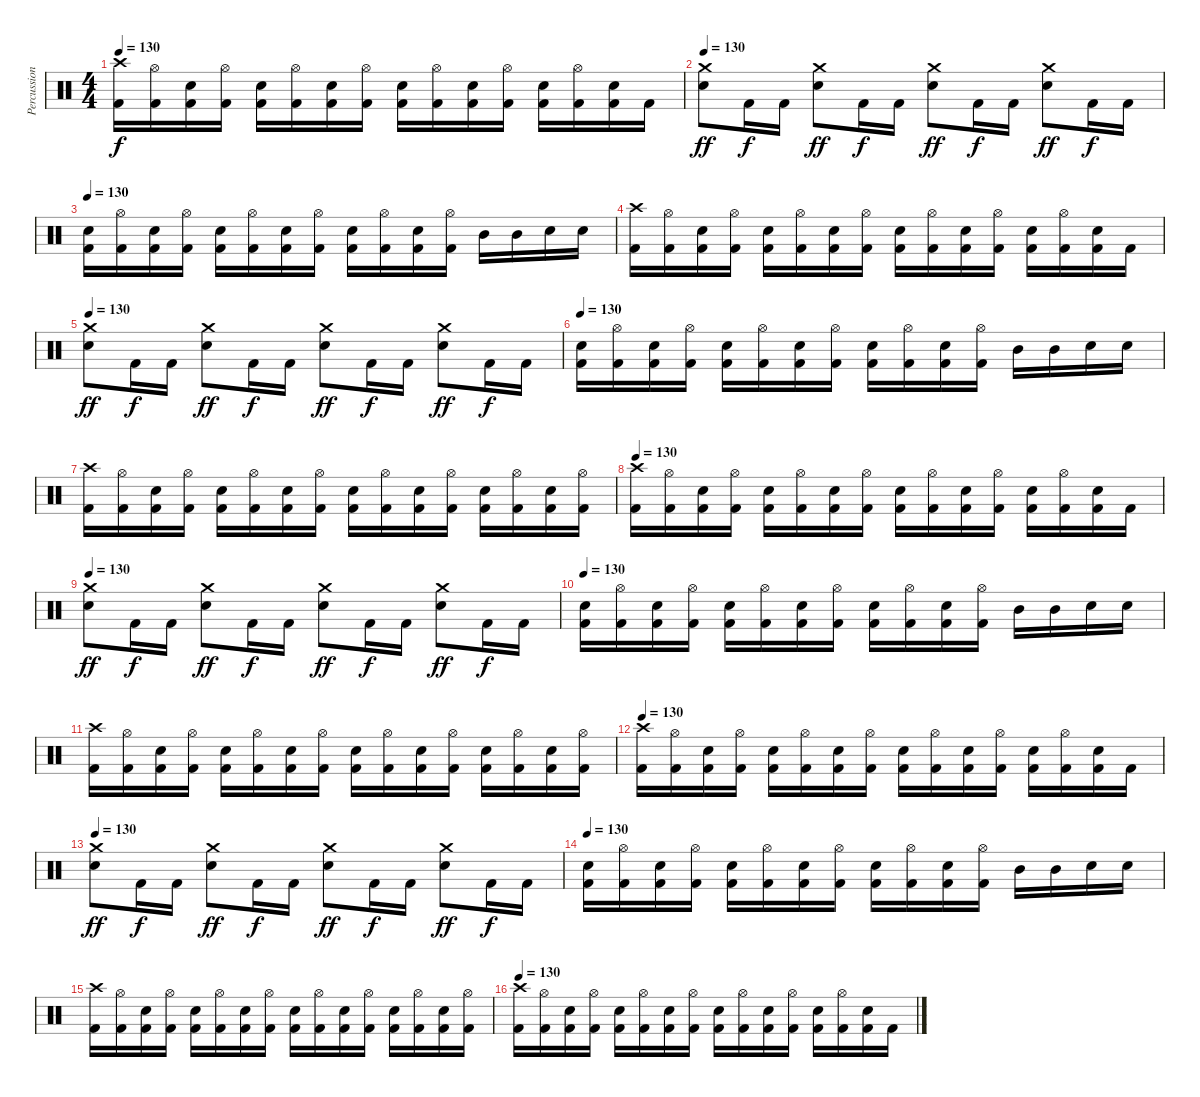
\track ("Percussion" "Percussion") {instrument percussion}
\staff {score}
\articulation defaults
\ts (4 4)
\tempo 130
\clef neutral
\ks c
("Crash high (hit)" "Kick (hit) 2").16{dy f} ("Hi-Hat (open)" "Kick (hit) 2").16 ("Electric Snare (hit)" "Kick (hit) 2").16 ("Hi-Hat (open)" "Kick (hit) 2").16 ("Electric Snare (hit)" "Kick (hit) 2").16 ("Hi-Hat (open)" "Kick (hit) 2").16 ("Electric Snare (hit)" "Kick (hit) 2").16 ("Hi-Hat (open)" "Kick (hit) 2").16 ("Electric Snare (hit)" "Kick (hit) 2").16 ("Hi-Hat (open)" "Kick (hit) 2").16 ("Electric Snare (hit)" "Kick (hit) 2").16 ("Hi-Hat (open)" "Kick (hit) 2").16 ("Electric Snare (hit)" "Kick (hit) 2").16 ("Hi-Hat (open)" "Kick (hit) 2").16 ("Electric Snare (hit)" "Kick (hit) 2").16 "Kick (hit) 2".16 |
\tempo 130
("Crash medium (hit)" "Electric Snare (hit)").8{dy ff} "Kick (hit) 2".16{dy f} "Kick (hit) 2".16 ("Crash medium (hit)" "Electric Snare (hit)").8{dy ff} "Kick (hit) 2".16{dy f} "Kick (hit) 2".16 ("Crash medium (hit)" "Electric Snare (hit)").8{dy ff} "Kick (hit) 2".16{dy f} "Kick (hit) 2".16 ("Crash medium (hit)" "Electric Snare (hit)").8{dy ff} "Kick (hit) 2".16{dy f} "Kick (hit) 2".16 |
\tempo 130
("Electric Snare (hit)" "Kick (hit) 2").16 ("Hi-Hat (open)" "Kick (hit) 2").16 ("Electric Snare (hit)" "Kick (hit) 2").16 ("Hi-Hat (open)" "Kick (hit) 2").16 ("Electric Snare (hit)" "Kick (hit) 2").16 ("Hi-Hat (open)" "Kick (hit) 2").16 ("Electric Snare (hit)" "Kick (hit) 2").16 ("Hi-Hat (open)" "Kick (hit) 2").16 ("Electric Snare (hit)" "Kick (hit) 2").16 ("Hi-Hat (open)" "Kick (hit) 2").16 ("Electric Snare (hit)" "Kick (hit) 2").16 ("Hi-Hat (open)" "Kick (hit) 2").16 "Mid Tom (hit)".16 "Mid Tom (hit)".16 "Electric Snare (hit)".16 "Electric Snare (hit)".16 |
("Crash high (hit)" "Kick (hit) 2").16 ("Hi-Hat (open)" "Kick (hit) 2").16 ("Electric Snare (hit)" "Kick (hit) 2").16 ("Hi-Hat (open)" "Kick (hit) 2").16 ("Electric Snare (hit)" "Kick (hit) 2").16 ("Hi-Hat (open)" "Kick (hit) 2").16 ("Electric Snare (hit)" "Kick (hit) 2").16 ("Hi-Hat (open)" "Kick (hit) 2").16 ("Electric Snare (hit)" "Kick (hit) 2").16 ("Hi-Hat (open)" "Kick (hit) 2").16 ("Electric Snare (hit)" "Kick (hit) 2").16 ("Hi-Hat (open)" "Kick (hit) 2").16 ("Electric Snare (hit)" "Kick (hit) 2").16 ("Hi-Hat (open)" "Kick (hit) 2").16 ("Electric Snare (hit)" "Kick (hit) 2").16 "Kick (hit) 2".16 |
\tempo 130
("Crash medium (hit)" "Electric Snare (hit)").8{dy ff} "Kick (hit) 2".16{dy f} "Kick (hit) 2".16 ("Crash medium (hit)" "Electric Snare (hit)").8{dy ff} "Kick (hit) 2".16{dy f} "Kick (hit) 2".16 ("Crash medium (hit)" "Electric Snare (hit)").8{dy ff} "Kick (hit) 2".16{dy f} "Kick (hit) 2".16 ("Crash medium (hit)" "Electric Snare (hit)").8{dy ff} "Kick (hit) 2".16{dy f} "Kick (hit) 2".16 |
\tempo 130
("Electric Snare (hit)" "Kick (hit) 2").16 ("Hi-Hat (open)" "Kick (hit) 2").16 ("Electric Snare (hit)" "Kick (hit) 2").16 ("Hi-Hat (open)" "Kick (hit) 2").16 ("Electric Snare (hit)" "Kick (hit) 2").16 ("Hi-Hat (open)" "Kick (hit) 2").16 ("Electric Snare (hit)" "Kick (hit) 2").16 ("Hi-Hat (open)" "Kick (hit) 2").16 ("Electric Snare (hit)" "Kick (hit) 2").16 ("Hi-Hat (open)" "Kick (hit) 2").16 ("Electric Snare (hit)" "Kick (hit) 2").16 ("Hi-Hat (open)" "Kick (hit) 2").16 "Mid Tom (hit)".16 "Mid Tom (hit)".16 "Electric Snare (hit)".16 "Electric Snare (hit)".16 |
("Crash high (hit)" "Kick (hit) 2").16 ("Hi-Hat (open)" "Kick (hit) 2").16 ("Electric Snare (hit)" "Kick (hit) 2").16 ("Hi-Hat (open)" "Kick (hit) 2").16 ("Electric Snare (hit)" "Kick (hit) 2").16 ("Hi-Hat (open)" "Kick (hit) 2").16 ("Electric Snare (hit)" "Kick (hit) 2").16 ("Hi-Hat (open)" "Kick (hit) 2").16 ("Electric Snare (hit)" "Kick (hit) 2").16 ("Hi-Hat (open)" "Kick (hit) 2").16 ("Electric Snare (hit)" "Kick (hit) 2").16 ("Hi-Hat (open)" "Kick (hit) 2").16 ("Electric Snare (hit)" "Kick (hit) 2").16 ("Hi-Hat (open)" "Kick (hit) 2").16 ("Electric Snare (hit)" "Kick (hit) 2").16 ("Hi-Hat (open)" "Kick (hit) 2").16 |
\tempo 130
("Crash high (hit)" "Kick (hit) 2").16 ("Hi-Hat (open)" "Kick (hit) 2").16 ("Electric Snare (hit)" "Kick (hit) 2").16 ("Hi-Hat (open)" "Kick (hit) 2").16 ("Electric Snare (hit)" "Kick (hit) 2").16 ("Hi-Hat (open)" "Kick (hit) 2").16 ("Electric Snare (hit)" "Kick (hit) 2").16 ("Hi-Hat (open)" "Kick (hit) 2").16 ("Electric Snare (hit)" "Kick (hit) 2").16 ("Hi-Hat (open)" "Kick (hit) 2").16 ("Electric Snare (hit)" "Kick (hit) 2").16 ("Hi-Hat (open)" "Kick (hit) 2").16 ("Electric Snare (hit)" "Kick (hit) 2").16 ("Hi-Hat (open)" "Kick (hit) 2").16 ("Electric Snare (hit)" "Kick (hit) 2").16 "Kick (hit) 2".16 |
\tempo 130
("Crash medium (hit)" "Electric Snare (hit)").8{dy ff} "Kick (hit) 2".16{dy f} "Kick (hit) 2".16 ("Crash medium (hit)" "Electric Snare (hit)").8{dy ff} "Kick (hit) 2".16{dy f} "Kick (hit) 2".16 ("Crash medium (hit)" "Electric Snare (hit)").8{dy ff} "Kick (hit) 2".16{dy f} "Kick (hit) 2".16 ("Crash medium (hit)" "Electric Snare (hit)").8{dy ff} "Kick (hit) 2".16{dy f} "Kick (hit) 2".16 |
\tempo 130
("Electric Snare (hit)" "Kick (hit) 2").16 ("Hi-Hat (open)" "Kick (hit) 2").16 ("Electric Snare (hit)" "Kick (hit) 2").16 ("Hi-Hat (open)" "Kick (hit) 2").16 ("Electric Snare (hit)" "Kick (hit) 2").16 ("Hi-Hat (open)" "Kick (hit) 2").16 ("Electric Snare (hit)" "Kick (hit) 2").16 ("Hi-Hat (open)" "Kick (hit) 2").16 ("Electric Snare (hit)" "Kick (hit) 2").16 ("Hi-Hat (open)" "Kick (hit) 2").16 ("Electric Snare (hit)" "Kick (hit) 2").16 ("Hi-Hat (open)" "Kick (hit) 2").16 "Mid Tom (hit)".16 "Mid Tom (hit)".16 "Electric Snare (hit)".16 "Electric Snare (hit)".16 |
("Crash high (hit)" "Kick (hit) 2").16 ("Hi-Hat (open)" "Kick (hit) 2").16 ("Electric Snare (hit)" "Kick (hit) 2").16 ("Hi-Hat (open)" "Kick (hit) 2").16 ("Electric Snare (hit)" "Kick (hit) 2").16 ("Hi-Hat (open)" "Kick (hit) 2").16 ("Electric Snare (hit)" "Kick (hit) 2").16 ("Hi-Hat (open)" "Kick (hit) 2").16 ("Electric Snare (hit)" "Kick (hit) 2").16 ("Hi-Hat (open)" "Kick (hit) 2").16 ("Electric Snare (hit)" "Kick (hit) 2").16 ("Hi-Hat (open)" "Kick (hit) 2").16 ("Electric Snare (hit)" "Kick (hit) 2").16 ("Hi-Hat (open)" "Kick (hit) 2").16 ("Electric Snare (hit)" "Kick (hit) 2").16 ("Hi-Hat (open)" "Kick (hit) 2").16 |
\tempo 130
("Crash high (hit)" "Kick (hit) 2").16 ("Hi-Hat (open)" "Kick (hit) 2").16 ("Electric Snare (hit)" "Kick (hit) 2").16 ("Hi-Hat (open)" "Kick (hit) 2").16 ("Electric Snare (hit)" "Kick (hit) 2").16 ("Hi-Hat (open)" "Kick (hit) 2").16 ("Electric Snare (hit)" "Kick (hit) 2").16 ("Hi-Hat (open)" "Kick (hit) 2").16 ("Electric Snare (hit)" "Kick (hit) 2").16 ("Hi-Hat (open)" "Kick (hit) 2").16 ("Electric Snare (hit)" "Kick (hit) 2").16 ("Hi-Hat (open)" "Kick (hit) 2").16 ("Electric Snare (hit)" "Kick (hit) 2").16 ("Hi-Hat (open)" "Kick (hit) 2").16 ("Electric Snare (hit)" "Kick (hit) 2").16 "Kick (hit) 2".16 |
\tempo 130
("Crash medium (hit)" "Electric Snare (hit)").8{dy ff} "Kick (hit) 2".16{dy f} "Kick (hit) 2".16 ("Crash medium (hit)" "Electric Snare (hit)").8{dy ff} "Kick (hit) 2".16{dy f} "Kick (hit) 2".16 ("Crash medium (hit)" "Electric Snare (hit)").8{dy ff} "Kick (hit) 2".16{dy f} "Kick (hit) 2".16 ("Crash medium (hit)" "Electric Snare (hit)").8{dy ff} "Kick (hit) 2".16{dy f} "Kick (hit) 2".16 |
\tempo 130
("Electric Snare (hit)" "Kick (hit) 2").16 ("Hi-Hat (open)" "Kick (hit) 2").16 ("Electric Snare (hit)" "Kick (hit) 2").16 ("Hi-Hat (open)" "Kick (hit) 2").16 ("Electric Snare (hit)" "Kick (hit) 2").16 ("Hi-Hat (open)" "Kick (hit) 2").16 ("Electric Snare (hit)" "Kick (hit) 2").16 ("Hi-Hat (open)" "Kick (hit) 2").16 ("Electric Snare (hit)" "Kick (hit) 2").16 ("Hi-Hat (open)" "Kick (hit) 2").16 ("Electric Snare (hit)" "Kick (hit) 2").16 ("Hi-Hat (open)" "Kick (hit) 2").16 "Mid Tom (hit)".16 "Mid Tom (hit)".16 "Electric Snare (hit)".16 "Electric Snare (hit)".16 |
("Crash high (hit)" "Kick (hit) 2").16 ("Hi-Hat (open)" "Kick (hit) 2").16 ("Electric Snare (hit)" "Kick (hit) 2").16 ("Hi-Hat (open)" "Kick (hit) 2").16 ("Electric Snare (hit)" "Kick (hit) 2").16 ("Hi-Hat (open)" "Kick (hit) 2").16 ("Electric Snare (hit)" "Kick (hit) 2").16 ("Hi-Hat (open)" "Kick (hit) 2").16 ("Electric Snare (hit)" "Kick (hit) 2").16 ("Hi-Hat (open)" "Kick (hit) 2").16 ("Electric Snare (hit)" "Kick (hit) 2").16 ("Hi-Hat (open)" "Kick (hit) 2").16 ("Electric Snare (hit)" "Kick (hit) 2").16 ("Hi-Hat (open)" "Kick (hit) 2").16 ("Electric Snare (hit)" "Kick (hit) 2").16 ("Hi-Hat (open)" "Kick (hit) 2").16 |
\tempo 130
("Crash high (hit)" "Kick (hit) 2").16 ("Hi-Hat (open)" "Kick (hit) 2").16 ("Electric Snare (hit)" "Kick (hit) 2").16 ("Hi-Hat (open)" "Kick (hit) 2").16 ("Electric Snare (hit)" "Kick (hit) 2").16 ("Hi-Hat (open)" "Kick (hit) 2").16 ("Electric Snare (hit)" "Kick (hit) 2").16 ("Hi-Hat (open)" "Kick (hit) 2").16 ("Electric Snare (hit)" "Kick (hit) 2").16 ("Hi-Hat (open)" "Kick (hit) 2").16 ("Electric Snare (hit)" "Kick (hit) 2").16 ("Hi-Hat (open)" "Kick (hit) 2").16 ("Electric Snare (hit)" "Kick (hit) 2").16 ("Hi-Hat (open)" "Kick (hit) 2").16 ("Electric Snare (hit)" "Kick (hit) 2").16 "Kick (hit) 2".16
